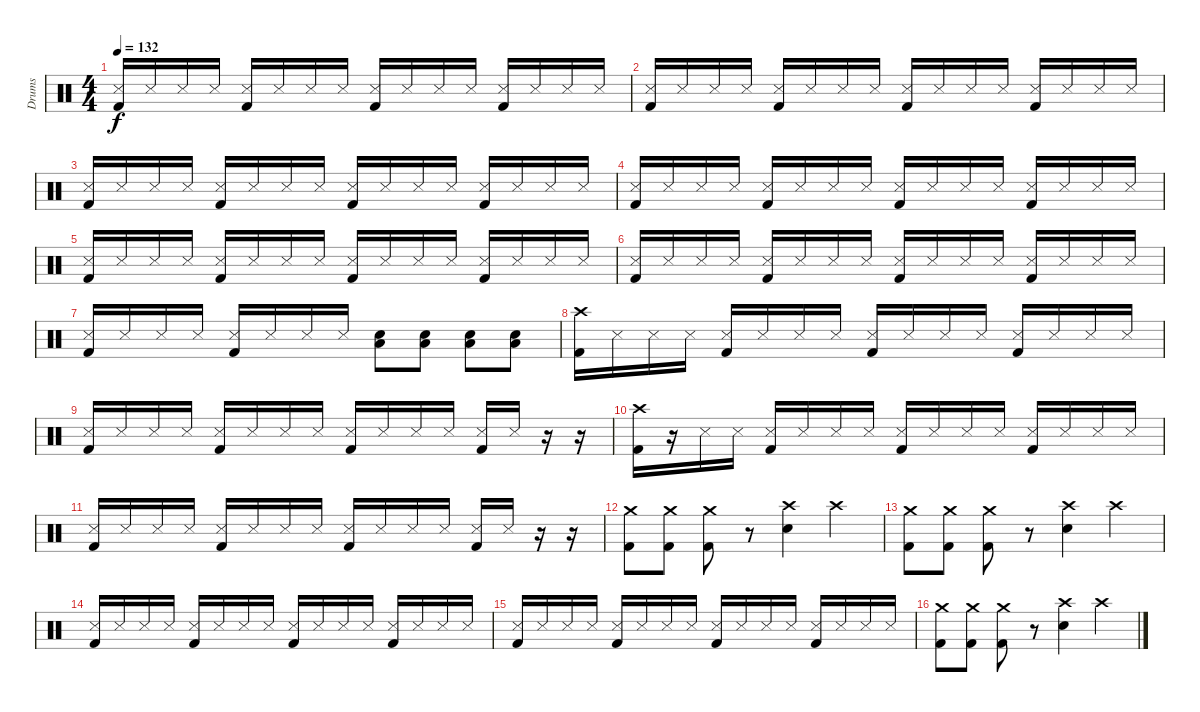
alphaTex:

\track ("Drums" "Drums") {instrument percussion}
\staff {score}
\articulation defaults
\ts (4 4)
\tempo 132
\clef neutral
\ks c
("Snare (side stick) 3" "Kick (hit) 2").16{dy f} "Snare (side stick) 3".16 "Snare (side stick) 3".16 "Snare (side stick) 3".16 ("Snare (side stick) 3" "Kick (hit) 2").16 "Snare (side stick) 3".16 "Snare (side stick) 3".16 "Snare (side stick) 3".16 ("Snare (side stick) 3" "Kick (hit) 2").16 "Snare (side stick) 3".16 "Snare (side stick) 3".16 "Snare (side stick) 3".16 ("Snare (side stick) 3" "Kick (hit) 2").16 "Snare (side stick) 3".16 "Snare (side stick) 3".16 "Snare (side stick) 3".16 |
("Snare (side stick) 3" "Kick (hit) 2").16 "Snare (side stick) 3".16 "Snare (side stick) 3".16 "Snare (side stick) 3".16 ("Snare (side stick) 3" "Kick (hit) 2").16 "Snare (side stick) 3".16 "Snare (side stick) 3".16 "Snare (side stick) 3".16 ("Snare (side stick) 3" "Kick (hit) 2").16 "Snare (side stick) 3".16 "Snare (side stick) 3".16 "Snare (side stick) 3".16 ("Snare (side stick) 3" "Kick (hit) 2").16 "Snare (side stick) 3".16 "Snare (side stick) 3".16 "Snare (side stick) 3".16 |
("Snare (side stick) 3" "Kick (hit) 2").16 "Snare (side stick) 3".16 "Snare (side stick) 3".16 "Snare (side stick) 3".16 ("Snare (side stick) 3" "Kick (hit) 2").16 "Snare (side stick) 3".16 "Snare (side stick) 3".16 "Snare (side stick) 3".16 ("Snare (side stick) 3" "Kick (hit) 2").16 "Snare (side stick) 3".16 "Snare (side stick) 3".16 "Snare (side stick) 3".16 ("Snare (side stick) 3" "Kick (hit) 2").16 "Snare (side stick) 3".16 "Snare (side stick) 3".16 "Snare (side stick) 3".16 |
("Snare (side stick) 3" "Kick (hit) 2").16 "Snare (side stick) 3".16 "Snare (side stick) 3".16 "Snare (side stick) 3".16 ("Snare (side stick) 3" "Kick (hit) 2").16 "Snare (side stick) 3".16 "Snare (side stick) 3".16 "Snare (side stick) 3".16 ("Snare (side stick) 3" "Kick (hit) 2").16 "Snare (side stick) 3".16 "Snare (side stick) 3".16 "Snare (side stick) 3".16 ("Snare (side stick) 3" "Kick (hit) 2").16 "Snare (side stick) 3".16 "Snare (side stick) 3".16 "Snare (side stick) 3".16 |
("Snare (side stick) 3" "Kick (hit) 2").16 "Snare (side stick) 3".16 "Snare (side stick) 3".16 "Snare (side stick) 3".16 ("Snare (side stick) 3" "Kick (hit) 2").16 "Snare (side stick) 3".16 "Snare (side stick) 3".16 "Snare (side stick) 3".16 ("Snare (side stick) 3" "Kick (hit) 2").16 "Snare (side stick) 3".16 "Snare (side stick) 3".16 "Snare (side stick) 3".16 ("Snare (side stick) 3" "Kick (hit) 2").16 "Snare (side stick) 3".16 "Snare (side stick) 3".16 "Snare (side stick) 3".16 |
("Snare (side stick) 3" "Kick (hit) 2").16 "Snare (side stick) 3".16 "Snare (side stick) 3".16 "Snare (side stick) 3".16 ("Snare (side stick) 3" "Kick (hit) 2").16 "Snare (side stick) 3".16 "Snare (side stick) 3".16 "Snare (side stick) 3".16 ("Snare (side stick) 3" "Kick (hit) 2").16 "Snare (side stick) 3".16 "Snare (side stick) 3".16 "Snare (side stick) 3".16 ("Snare (side stick) 3" "Kick (hit) 2").16 "Snare (side stick) 3".16 "Snare (side stick) 3".16 "Snare (side stick) 3".16 |
("Snare (side stick) 3" "Kick (hit) 2").16 "Snare (side stick) 3".16 "Snare (side stick) 3".16 "Snare (side stick) 3".16 ("Snare (side stick) 3" "Kick (hit) 2").16 "Snare (side stick) 3".16 "Snare (side stick) 3".16 "Snare (side stick) 3".16 ("Low Floor Tom (hit)" "Electric Snare (hit)").8 ("Low Floor Tom (hit)" "Electric Snare (hit)").8 ("Low Floor Tom (hit)" "Electric Snare (hit)").8 ("Low Floor Tom (hit)" "Electric Snare (hit)").8 |
("Crash high (hit)" "Kick (hit) 2").16 "Snare (side stick) 3".16 "Snare (side stick) 3".16 "Snare (side stick) 3".16 ("Snare (side stick) 3" "Kick (hit) 2").16 "Snare (side stick) 3".16 "Snare (side stick) 3".16 "Snare (side stick) 3".16 ("Snare (side stick) 3" "Kick (hit) 2").16 "Snare (side stick) 3".16 "Snare (side stick) 3".16 "Snare (side stick) 3".16 ("Snare (side stick) 3" "Kick (hit) 2").16 "Snare (side stick) 3".16 "Snare (side stick) 3".16 "Snare (side stick) 3".16 |
("Snare (side stick) 3" "Kick (hit) 2").16 "Snare (side stick) 3".16 "Snare (side stick) 3".16 "Snare (side stick) 3".16 ("Snare (side stick) 3" "Kick (hit) 2").16 "Snare (side stick) 3".16 "Snare (side stick) 3".16 "Snare (side stick) 3".16 ("Snare (side stick) 3" "Kick (hit) 2").16 "Snare (side stick) 3".16 "Snare (side stick) 3".16 "Snare (side stick) 3".16 ("Snare (side stick) 3" "Kick (hit) 2").16 "Snare (side stick) 3".16 r.16 r.16 |
("Crash high (hit)" "Kick (hit) 2").16 r.16 "Snare (side stick) 3".16 "Snare (side stick) 3".16 ("Snare (side stick) 3" "Kick (hit) 2").16 "Snare (side stick) 3".16 "Snare (side stick) 3".16 "Snare (side stick) 3".16 ("Snare (side stick) 3" "Kick (hit) 2").16 "Snare (side stick) 3".16 "Snare (side stick) 3".16 "Snare (side stick) 3".16 ("Snare (side stick) 3" "Kick (hit) 2").16 "Snare (side stick) 3".16 "Snare (side stick) 3".16 "Snare (side stick) 3".16 |
("Snare (side stick) 3" "Kick (hit) 2").16 "Snare (side stick) 3".16 "Snare (side stick) 3".16 "Snare (side stick) 3".16 ("Snare (side stick) 3" "Kick (hit) 2").16 "Snare (side stick) 3".16 "Snare (side stick) 3".16 "Snare (side stick) 3".16 ("Snare (side stick) 3" "Kick (hit) 2").16 "Snare (side stick) 3".16 "Snare (side stick) 3".16 "Snare (side stick) 3".16 ("Snare (side stick) 3" "Kick (hit) 2").16 "Snare (side stick) 3".16 r.16 r.16 |
("Crash medium (hit)" "Kick (hit) 2").8 ("Crash medium (hit)" "Kick (hit) 2").8 ("Crash medium (hit)" "Kick (hit) 2").8 r.8 ("Crash high (hit)" "Electric Snare (hit)").4 "Crash high (hit)".4 |
("Crash medium (hit)" "Kick (hit) 2").8 ("Crash medium (hit)" "Kick (hit) 2").8 ("Crash medium (hit)" "Kick (hit) 2").8 r.8 ("Crash high (hit)" "Electric Snare (hit)").4 "Crash high (hit)".4 |
("Snare (side stick) 3" "Kick (hit) 2").16 "Snare (side stick) 3".16 "Snare (side stick) 3".16 "Snare (side stick) 3".16 ("Snare (side stick) 3" "Kick (hit) 2").16 "Snare (side stick) 3".16 "Snare (side stick) 3".16 "Snare (side stick) 3".16 ("Snare (side stick) 3" "Kick (hit) 2").16 "Snare (side stick) 3".16 "Snare (side stick) 3".16 "Snare (side stick) 3".16 ("Snare (side stick) 3" "Kick (hit) 2").16 "Snare (side stick) 3".16 "Snare (side stick) 3".16 "Snare (side stick) 3".16 |
("Snare (side stick) 3" "Kick (hit) 2").16 "Snare (side stick) 3".16 "Snare (side stick) 3".16 "Snare (side stick) 3".16 ("Snare (side stick) 3" "Kick (hit) 2").16 "Snare (side stick) 3".16 "Snare (side stick) 3".16 "Snare (side stick) 3".16 ("Snare (side stick) 3" "Kick (hit) 2").16 "Snare (side stick) 3".16 "Snare (side stick) 3".16 "Snare (side stick) 3".16 ("Snare (side stick) 3" "Kick (hit) 2").16 "Snare (side stick) 3".16 "Snare (side stick) 3".16 "Snare (side stick) 3".16 |
("Crash medium (hit)" "Kick (hit) 2").8 ("Crash medium (hit)" "Kick (hit) 2").8 ("Crash medium (hit)" "Kick (hit) 2").8 r.8 ("Crash high (hit)" "Electric Snare (hit)").4 "Crash high (hit)".4
